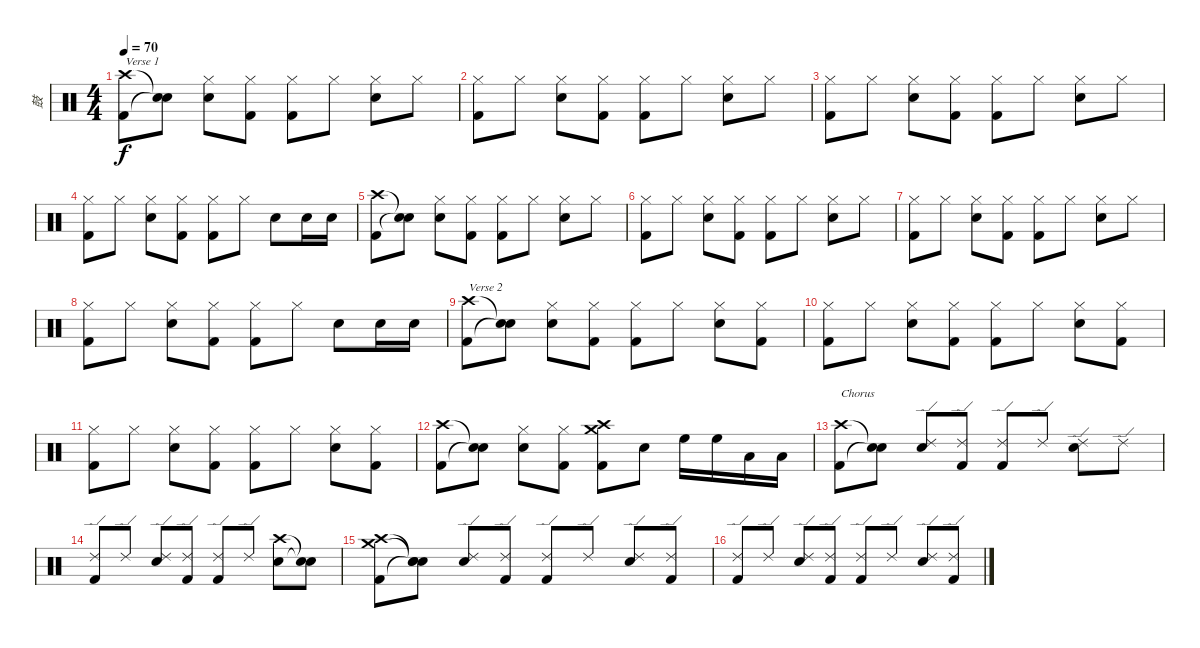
\track ("鼓" "鼓") {instrument percussion}
\staff {score}
\articulation defaults
\ts (4 4)
\tempo 70
\clef neutral
\ks c
("Crash high (hit)" "Kick (hit) 2").8{txt "Verse 1" dy f} ("Snare (hit)"{t} "Snare (hit)"{t}).8 ("Hi-Hat (closed)" "Electric Snare (hit)").8 ("Hi-Hat (closed)" "Kick (hit) 2").8 ("Hi-Hat (closed)" "Kick (hit) 2").8 "Hi-Hat (closed)".8 ("Hi-Hat (closed)" "Electric Snare (hit)").8 "Hi-Hat (closed)".8 |
("Hi-Hat (closed)" "Kick (hit) 2").8 "Hi-Hat (closed)".8 ("Hi-Hat (closed)" "Electric Snare (hit)").8 ("Hi-Hat (closed)" "Kick (hit) 2").8 ("Hi-Hat (closed)" "Kick (hit) 2").8 "Hi-Hat (closed)".8 ("Hi-Hat (closed)" "Electric Snare (hit)").8 "Hi-Hat (closed)".8 |
("Hi-Hat (closed)" "Kick (hit) 2").8 "Hi-Hat (closed)".8 ("Hi-Hat (closed)" "Electric Snare (hit)").8 ("Hi-Hat (closed)" "Kick (hit) 2").8 ("Hi-Hat (closed)" "Kick (hit) 2").8 "Hi-Hat (closed)".8 ("Hi-Hat (closed)" "Electric Snare (hit)").8 "Hi-Hat (closed)".8 |
("Hi-Hat (closed)" "Kick (hit) 2").8 "Hi-Hat (closed)".8 ("Hi-Hat (closed)" "Electric Snare (hit)").8 ("Hi-Hat (closed)" "Kick (hit) 2").8 ("Hi-Hat (closed)" "Kick (hit) 2").8 "Hi-Hat (closed)".8 "Electric Snare (hit)".8 "Electric Snare (hit)".16 "Electric Snare (hit)".16 |
("Crash high (hit)" "Kick (hit) 2").8 ("Snare (hit)"{t} "Snare (hit)"{t}).8 ("Hi-Hat (closed)" "Electric Snare (hit)").8 ("Hi-Hat (closed)" "Kick (hit) 2").8 ("Hi-Hat (closed)" "Kick (hit) 2").8 "Hi-Hat (closed)".8 ("Hi-Hat (closed)" "Electric Snare (hit)").8 "Hi-Hat (closed)".8 |
("Hi-Hat (closed)" "Kick (hit) 2").8 "Hi-Hat (closed)".8 ("Hi-Hat (closed)" "Electric Snare (hit)").8 ("Hi-Hat (closed)" "Kick (hit) 2").8 ("Hi-Hat (closed)" "Kick (hit) 2").8 "Hi-Hat (closed)".8 ("Hi-Hat (closed)" "Electric Snare (hit)").8 "Hi-Hat (closed)".8 |
("Hi-Hat (closed)" "Kick (hit) 2").8 "Hi-Hat (closed)".8 ("Hi-Hat (closed)" "Electric Snare (hit)").8 ("Hi-Hat (closed)" "Kick (hit) 2").8 ("Hi-Hat (closed)" "Kick (hit) 2").8 "Hi-Hat (closed)".8 ("Hi-Hat (closed)" "Electric Snare (hit)").8 "Hi-Hat (closed)".8 |
("Hi-Hat (closed)" "Kick (hit) 2").8 "Hi-Hat (closed)".8 ("Hi-Hat (closed)" "Electric Snare (hit)").8 ("Hi-Hat (closed)" "Kick (hit) 2").8 ("Hi-Hat (closed)" "Kick (hit) 2").8 "Hi-Hat (closed)".8 "Electric Snare (hit)".8 "Electric Snare (hit)".16 "Electric Snare (hit)".16 |
("Crash high (hit)" "Kick (hit) 2").8{txt "Verse 2"} ("Snare (hit)"{t} "Snare (hit)"{t}).8 ("Hi-Hat (closed)" "Electric Snare (hit)").8 ("Hi-Hat (closed)" "Kick (hit) 2").8 ("Hi-Hat (closed)" "Kick (hit) 2").8 "Hi-Hat (closed)".8 ("Hi-Hat (closed)" "Electric Snare (hit)").8 ("Hi-Hat (closed)" "Kick (hit) 2").8 |
("Hi-Hat (closed)" "Kick (hit) 2").8 "Hi-Hat (closed)".8 ("Hi-Hat (closed)" "Electric Snare (hit)").8 ("Hi-Hat (closed)" "Kick (hit) 2").8 ("Hi-Hat (closed)" "Kick (hit) 2").8 "Hi-Hat (closed)".8 ("Hi-Hat (closed)" "Electric Snare (hit)").8 ("Hi-Hat (closed)" "Kick (hit) 2").8 |
("Hi-Hat (closed)" "Kick (hit) 2").8 "Hi-Hat (closed)".8 ("Hi-Hat (closed)" "Electric Snare (hit)").8 ("Hi-Hat (closed)" "Kick (hit) 2").8 ("Hi-Hat (closed)" "Kick (hit) 2").8 "Hi-Hat (closed)".8 ("Hi-Hat (closed)" "Electric Snare (hit)").8 ("Hi-Hat (closed)" "Kick (hit) 2").8 |
("Crash high (hit)" "Kick (hit) 2").8 ("Snare (hit)"{t} "Snare (hit)"{t}).8 ("Hi-Hat (closed)" "Electric Snare (hit)").8 ("Hi-Hat (closed)" "Kick (hit) 2").8 ("Crash high (hit)" "Crash medium (hit)" "Kick (hit) 2").8 "Electric Snare (hit)".8 "High Floor Tom (hit)".16 "High Floor Tom (hit)".16 "Low Tom (hit)".16 "Low Tom (hit)".16 |
("Crash high (hit)" "Kick (hit) 2").8{txt "Chorus"} ("Snare (hit)"{t} "Snare (hit)"{t}).8 ("Ride (edge) 2" "Electric Snare (hit)").8 ("Ride (edge) 2" "Kick (hit) 2").8 ("Ride (edge) 2" "Kick (hit) 2").8 "Ride (edge) 2".8 ("Ride (edge) 2" "Electric Snare (hit)").8 "Ride (edge) 2".8 |
("Ride (edge) 2" "Kick (hit) 2").8 "Ride (edge) 2".8 ("Ride (edge) 2" "Electric Snare (hit)").8 ("Ride (edge) 2" "Kick (hit) 2").8 ("Ride (edge) 2" "Kick (hit) 2").8 "Ride (edge) 2".8 ("Crash high (hit)" "Electric Snare (hit)").8 ("Snare (hit)"{t} "Snare (hit)"{t}).8 |
("Crash high (hit)" "Crash medium (hit)" "Kick (hit) 2").8 ("Snare (hit)"{t} "Snare (hit)"{t} "Snare (hit)"{t}).8 ("Ride (edge) 2" "Electric Snare (hit)").8 ("Ride (edge) 2" "Kick (hit) 2").8 ("Ride (edge) 2" "Kick (hit) 2").8 "Ride (edge) 2".8 ("Ride (edge) 2" "Electric Snare (hit)").8 ("Ride (edge) 2" "Kick (hit) 2").8 |
("Ride (edge) 2" "Kick (hit) 2").8 "Ride (edge) 2".8 ("Ride (edge) 2" "Electric Snare (hit)").8 ("Ride (edge) 2" "Kick (hit) 2").8 ("Ride (edge) 2" "Kick (hit) 2").8 "Ride (edge) 2".8 ("Ride (edge) 2" "Electric Snare (hit)").8 ("Ride (edge) 2" "Kick (hit) 2").8
